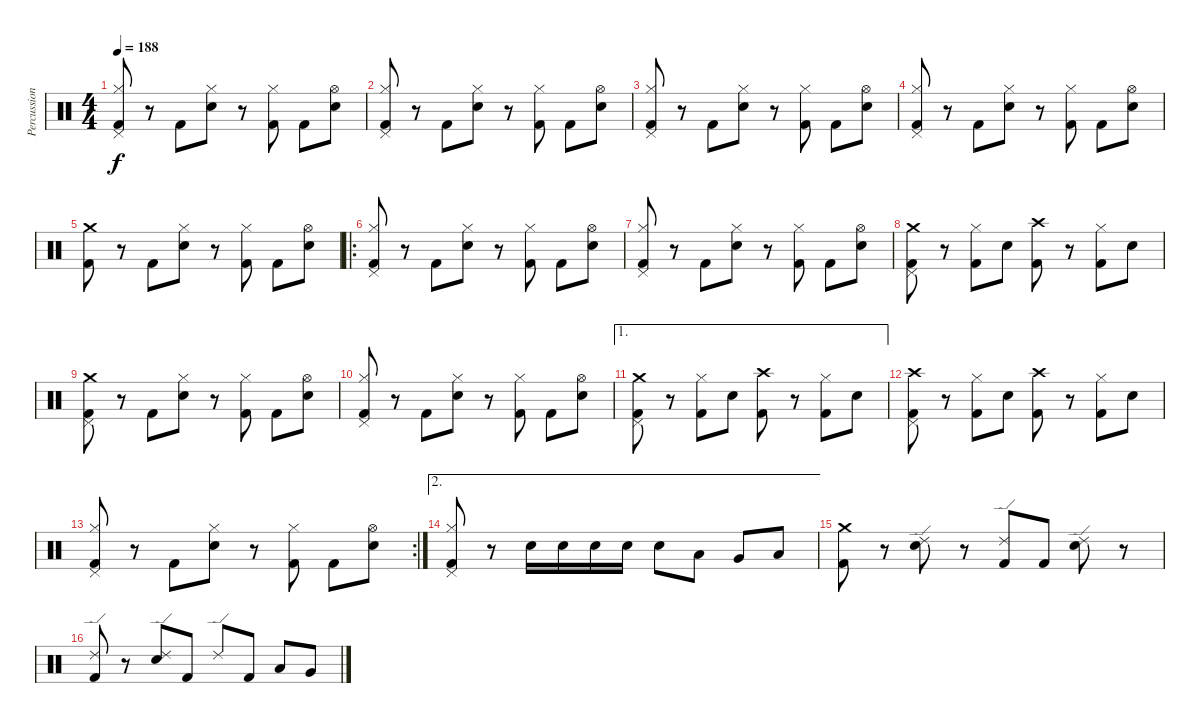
\track ("Percussion" "Percussion") {instrument percussion}
\staff {score}
\articulation defaults
\ts (4 4)
\tempo 188
\clef neutral
\ks c
("Pedal Hi-Hat (hit)" "Hi-Hat (closed)" "Kick (hit) 2").8{dy f} r.8 "Kick (hit) 2".8 ("Hi-Hat (closed)" "Snare (hit) 2").8 r.8 ("Hi-Hat (closed)" "Kick (hit) 2").8 "Kick (hit) 2".8 ("Hi-Hat (open)" "Snare (hit) 2").8 |
("Pedal Hi-Hat (hit)" "Hi-Hat (closed)" "Kick (hit) 2").8 r.8 "Kick (hit) 2".8 ("Hi-Hat (closed)" "Snare (hit) 2").8 r.8 ("Hi-Hat (closed)" "Kick (hit) 2").8 "Kick (hit) 2".8 ("Hi-Hat (open)" "Snare (hit) 2").8 |
("Pedal Hi-Hat (hit)" "Hi-Hat (closed)" "Kick (hit) 2").8 r.8 "Kick (hit) 2".8 ("Hi-Hat (closed)" "Snare (hit) 2").8 r.8 ("Hi-Hat (closed)" "Kick (hit) 2").8 "Kick (hit) 2".8 ("Hi-Hat (open)" "Snare (hit) 2").8 |
("Pedal Hi-Hat (hit)" "Hi-Hat (closed)" "Kick (hit) 2").8 r.8 "Kick (hit) 2".8 ("Hi-Hat (closed)" "Snare (hit) 2").8 r.8 ("Hi-Hat (closed)" "Kick (hit) 2").8 "Kick (hit) 2".8 ("Hi-Hat (open)" "Snare (hit) 2").8 |
("Crash medium (hit)" "Kick (hit) 2").8 r.8 "Kick (hit) 2".8 ("Hi-Hat (closed)" "Snare (hit) 2").8 r.8 ("Hi-Hat (closed)" "Kick (hit) 2").8 "Kick (hit) 2".8 ("Hi-Hat (open)" "Snare (hit) 2").8 |
\ro
("Hi-Hat (closed)" "Pedal Hi-Hat (hit)" "Kick (hit) 2").8 r.8 "Kick (hit) 2".8 ("Hi-Hat (closed)" "Snare (hit) 2").8 r.8 ("Hi-Hat (closed)" "Kick (hit) 2").8 "Kick (hit) 2".8 ("Hi-Hat (open)" "Snare (hit) 2").8 |
("Hi-Hat (closed)" "Pedal Hi-Hat (hit)" "Kick (hit) 2").8 r.8 "Kick (hit) 2".8 ("Hi-Hat (closed)" "Snare (hit) 2").8 r.8 ("Hi-Hat (closed)" "Kick (hit) 2").8 "Kick (hit) 2".8 ("Hi-Hat (open)" "Snare (hit) 2").8 |
("Crash medium (hit)" "Pedal Hi-Hat (hit)" "Kick (hit) 2").8 r.8 ("Hi-Hat (closed)" "Kick (hit) 2").8 "Snare (hit) 2".8 ("Crash high (hit)" "Kick (hit) 2").8 r.8 ("Hi-Hat (closed)" "Kick (hit) 2").8 "Snare (hit) 2".8 |
("Crash medium (hit)" "Pedal Hi-Hat (hit)" "Kick (hit) 2").8 r.8 "Kick (hit) 2".8 ("Hi-Hat (closed)" "Snare (hit) 2").8 r.8 ("Hi-Hat (closed)" "Kick (hit) 2").8 "Kick (hit) 2".8 ("Hi-Hat (open)" "Snare (hit) 2").8 |
("Hi-Hat (closed)" "Pedal Hi-Hat (hit)" "Kick (hit) 2").8 r.8 "Kick (hit) 2".8 ("Hi-Hat (closed)" "Snare (hit) 2").8 r.8 ("Hi-Hat (closed)" "Kick (hit) 2").8 "Kick (hit) 2".8 ("Hi-Hat (open)" "Snare (hit) 2").8 |
\ae 1
("Crash medium (hit)" "Pedal Hi-Hat (hit)" "Kick (hit) 2").8 r.8 ("Hi-Hat (closed)" "Kick (hit) 2").8 "Snare (hit) 2".8 ("Crash high (hit)" "Kick (hit) 2").8 r.8 ("Hi-Hat (closed)" "Kick (hit) 2").8 "Snare (hit) 2".8 |
("Crash high (hit)" "Pedal Hi-Hat (hit)" "Kick (hit) 2").8 r.8 ("Hi-Hat (closed)" "Kick (hit) 2").8 "Snare (hit) 2".8 ("Crash high (hit)" "Kick (hit) 2").8 r.8 ("Hi-Hat (closed)" "Kick (hit) 2").8 "Snare (hit) 2".8 |
\rc 2
("Pedal Hi-Hat (hit)" "Hi-Hat (closed)" "Kick (hit) 2").8 r.8 "Kick (hit) 2".8 ("Hi-Hat (closed)" "Snare (hit) 2").8 r.8 ("Hi-Hat (closed)" "Kick (hit) 2").8 "Kick (hit) 2".8 ("Hi-Hat (open)" "Snare (hit) 2").8 |
\ae 2
("Hi-Hat (closed)" "Pedal Hi-Hat (hit)" "Kick (hit) 2").8 r.8 "Snare (hit) 2".16 "Snare (hit) 2".16 "Snare (hit) 2".16 "Snare (hit) 2".16 "Snare (hit) 2".8 "Low Tom (hit)".8 "Very Low Tom (hit)".8 "Low Floor Tom (hit)".8 |
("Crash medium (hit)" "Kick (hit) 2").8 r.8 ("Ride (edge) 2" "Snare (hit) 2").8 r.8 ("Ride (edge) 2" "Kick (hit) 2").8 "Kick (hit) 2".8 ("Ride (edge) 2" "Snare (hit) 2").8 r.8 |
("Ride (edge) 2" "Kick (hit) 2").8 r.8 ("Ride (edge) 2" "Snare (hit) 2").8 "Kick (hit) 2".8 "Ride (edge) 2".8 "Kick (hit) 2".8 "Low Tom (hit)".8 "Very Low Tom (hit)".8
